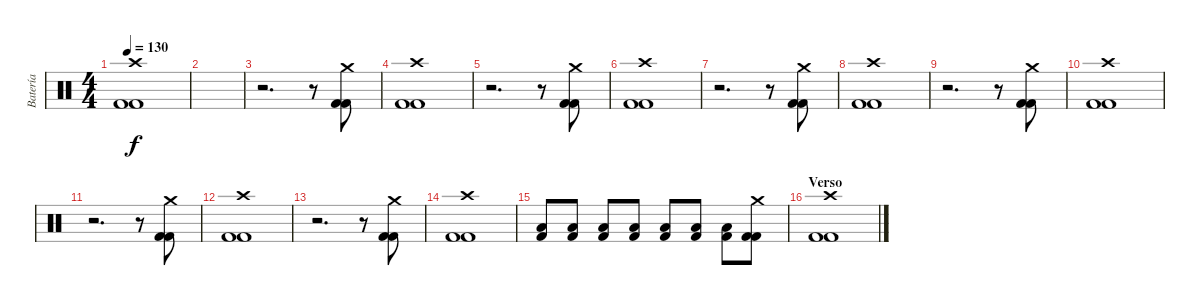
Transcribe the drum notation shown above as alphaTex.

\track ("Batería" "Batería") {instrument percussion}
\staff {score}
\articulation defaults
\ts (4 4)
\tempo 130
\clef neutral
\ks c
("Crash high (hit)" "Kick (hit) 2" "Kick (hit) 2").1{dy f} |
|
r.2{d} r.8 ("Crash medium (hit)" "Kick (hit) 2" "Kick (hit) 2").8 |
("Crash high (hit)" "Kick (hit) 2" "Kick (hit) 2").1 |
r.2{d} r.8 ("Crash medium (hit)" "Kick (hit) 2" "Kick (hit) 2").8 |
("Crash high (hit)" "Kick (hit) 2" "Kick (hit) 2").1 |
r.2{d} r.8 ("Crash medium (hit)" "Kick (hit) 2" "Kick (hit) 2").8 |
("Crash high (hit)" "Kick (hit) 2" "Kick (hit) 2").1 |
r.2{d} r.8 ("Crash medium (hit)" "Kick (hit) 2" "Kick (hit) 2").8 |
("Crash high (hit)" "Kick (hit) 2" "Kick (hit) 2").1 |
r.2{d} r.8 ("Crash medium (hit)" "Kick (hit) 2" "Kick (hit) 2").8 |
("Crash high (hit)" "Kick (hit) 2" "Kick (hit) 2").1 |
r.2{d} r.8 ("Crash medium (hit)" "Kick (hit) 2" "Kick (hit) 2").8 |
("Crash high (hit)" "Kick (hit) 2" "Kick (hit) 2").1 |
("Low Tom (hit)" "Kick (hit) 2").8 ("Low Tom (hit)" "Kick (hit) 2").8 ("Low Tom (hit)" "Kick (hit) 2").8 ("Low Tom (hit)" "Kick (hit) 2").8 ("Low Tom (hit)" "Kick (hit) 2").8 ("Low Tom (hit)" "Kick (hit) 2").8 ("Low Tom (hit)" "Kick (hit) 2").8 ("Crash medium (hit)" "Kick (hit) 2" "Kick (hit) 2").8 |
\section ("" "Verso")
("Crash high (hit)" "Kick (hit) 2" "Kick (hit) 2").1
